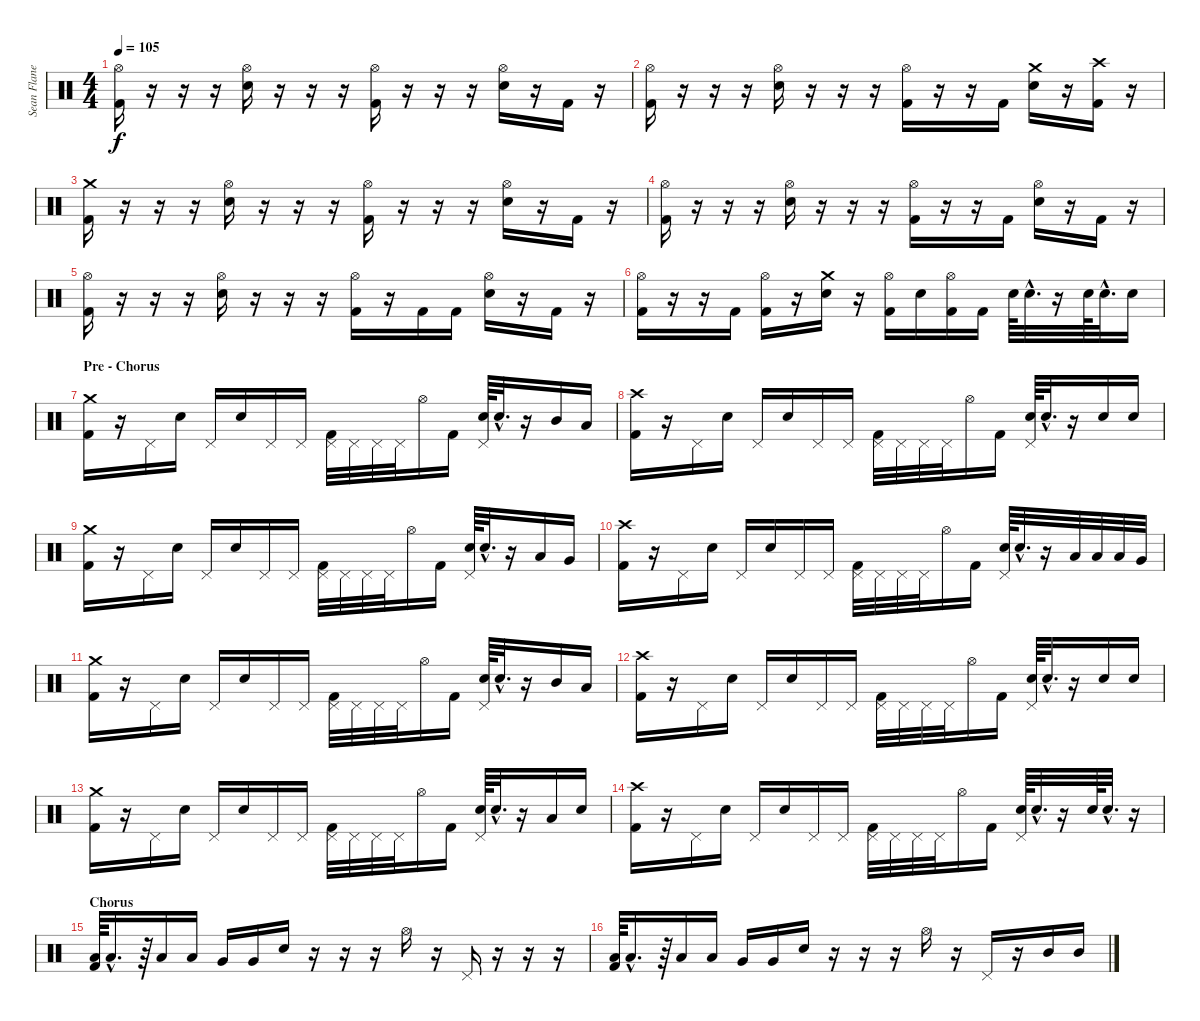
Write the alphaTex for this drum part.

\track ("Sean Flanegan [Drums]" "Sean Flane") {instrument percussion}
\staff {score}
\articulation defaults
\ts (4 4)
\tempo 105
\clef neutral
\ks c
("Hi-Hat (open)" "Kick (hit) 2").16{dy f} r.16 r.16 r.16 ("Hi-Hat (open)" "Electric Snare (hit)").16 r.16 r.16 r.16 ("Hi-Hat (open)" "Kick (hit) 2").16 r.16 r.16 r.16 ("Hi-Hat (open)" "Electric Snare (hit)").16 r.16 "Kick (hit) 2".16 r.16 |
("Hi-Hat (open)" "Kick (hit) 2").16 r.16 r.16 r.16 ("Hi-Hat (open)" "Electric Snare (hit)").16 r.16 r.16 r.16 ("Hi-Hat (open)" "Kick (hit) 2").16 r.16 r.16 "Kick (hit) 2".16 ("Crash medium (hit)" "Electric Snare (hit)").16 r.16 ("Crash high (hit)" "Kick (hit) 2").16 r.16 |
("Crash medium (hit)" "Kick (hit) 2").16 r.16 r.16 r.16 ("Hi-Hat (open)" "Electric Snare (hit)").16 r.16 r.16 r.16 ("Hi-Hat (open)" "Kick (hit) 2").16 r.16 r.16 r.16 ("Hi-Hat (open)" "Electric Snare (hit)").16 r.16 "Kick (hit) 2".16 r.16 |
("Hi-Hat (open)" "Kick (hit) 2").16 r.16 r.16 r.16 ("Hi-Hat (open)" "Electric Snare (hit)").16 r.16 r.16 r.16 ("Hi-Hat (open)" "Kick (hit) 2").16 r.16 r.16 "Kick (hit) 2".16 ("Hi-Hat (open)" "Electric Snare (hit)").16 r.16 "Kick (hit) 2".16 r.16 |
("Hi-Hat (open)" "Kick (hit) 2").16 r.16 r.16 r.16 ("Hi-Hat (open)" "Electric Snare (hit)").16 r.16 r.16 r.16 ("Hi-Hat (open)" "Kick (hit) 2").16 r.16 "Kick (hit) 2".16 "Kick (hit) 2".16 ("Hi-Hat (open)" "Electric Snare (hit)").16 r.16 "Kick (hit) 2".16 r.16 |
("Hi-Hat (open)" "Kick (hit) 2").16 r.16 r.16 "Kick (hit) 2".16 ("Hi-Hat (open)" "Kick (hit) 2").16 r.16 ("Crash medium (hit)" "Electric Snare (hit)").16 r.16 ("Hi-Hat (open)" "Kick (hit) 2").16 "Electric Snare (hit)".16 ("Hi-Hat (open)" "Kick (hit) 2").16 "Kick (hit) 2".16 "Electric Snare (hit)".64 "Electric Snare (hit)"{hac}.32{d} r.16 "Electric Snare (hit)".64 "Electric Snare (hit)"{hac}.32{d} "Electric Snare (hit)".16 |
\section ("" "Pre - Chorus")
("Crash medium (hit)" "Kick (hit) 2").16 r.16 "Pedal Hi-Hat (hit)".16 "Electric Snare (hit)".16 "Pedal Hi-Hat (hit)".16 "Electric Snare (hit)".16 "Pedal Hi-Hat (hit)".16 "Pedal Hi-Hat (hit)".16 ("Pedal Hi-Hat (hit)" "Kick (hit) 2").32 "Pedal Hi-Hat (hit)".32 "Pedal Hi-Hat (hit)".32 "Pedal Hi-Hat (hit)".32 "Hi-Hat (open)".16 "Kick (hit) 2".16 ("Pedal Hi-Hat (hit)" "Electric Snare (hit)").64 "Electric Snare (hit)"{hac}.32{d} r.16 "Mid Tom (hit)".16 "Low Tom (hit)".16 |
("Crash high (hit)" "Kick (hit) 2").16 r.16 "Pedal Hi-Hat (hit)".16 "Electric Snare (hit)".16 "Pedal Hi-Hat (hit)".16 "Electric Snare (hit)".16 "Pedal Hi-Hat (hit)".16 "Pedal Hi-Hat (hit)".16 ("Pedal Hi-Hat (hit)" "Kick (hit) 2").32 "Pedal Hi-Hat (hit)".32 "Pedal Hi-Hat (hit)".32 "Pedal Hi-Hat (hit)".32 "Hi-Hat (open)".16 "Kick (hit) 2".16 ("Pedal Hi-Hat (hit)" "Electric Snare (hit)").64 "Electric Snare (hit)"{hac}.32{d} r.16 "Electric Snare (hit)".16 "Electric Snare (hit)".16 |
("Crash medium (hit)" "Kick (hit) 2").16 r.16 "Pedal Hi-Hat (hit)".16 "Electric Snare (hit)".16 "Pedal Hi-Hat (hit)".16 "Electric Snare (hit)".16 "Pedal Hi-Hat (hit)".16 "Pedal Hi-Hat (hit)".16 ("Pedal Hi-Hat (hit)" "Kick (hit) 2").32 "Pedal Hi-Hat (hit)".32 "Pedal Hi-Hat (hit)".32 "Pedal Hi-Hat (hit)".32 "Hi-Hat (open)".16 "Kick (hit) 2".16 ("Pedal Hi-Hat (hit)" "Electric Snare (hit)").64 "Electric Snare (hit)"{hac}.32{d} r.16 "Low Tom (hit)".16 "Very Low Tom (hit)".16 |
("Crash high (hit)" "Kick (hit) 2").16 r.16 "Pedal Hi-Hat (hit)".16 "Electric Snare (hit)".16 "Pedal Hi-Hat (hit)".16 "Electric Snare (hit)".16 "Pedal Hi-Hat (hit)".16 "Pedal Hi-Hat (hit)".16 ("Pedal Hi-Hat (hit)" "Kick (hit) 2").32 "Pedal Hi-Hat (hit)".32 "Pedal Hi-Hat (hit)".32 "Pedal Hi-Hat (hit)".32 "Hi-Hat (open)".16 "Kick (hit) 2".16 ("Pedal Hi-Hat (hit)" "Electric Snare (hit)").64 "Electric Snare (hit)"{hac}.32{d} r.16 "Low Tom (hit)".32 "Low Tom (hit)".32 "Low Tom (hit)".32 "Very Low Tom (hit)".32 |
("Crash medium (hit)" "Kick (hit) 2").16 r.16 "Pedal Hi-Hat (hit)".16 "Electric Snare (hit)".16 "Pedal Hi-Hat (hit)".16 "Electric Snare (hit)".16 "Pedal Hi-Hat (hit)".16 "Pedal Hi-Hat (hit)".16 ("Pedal Hi-Hat (hit)" "Kick (hit) 2").32 "Pedal Hi-Hat (hit)".32 "Pedal Hi-Hat (hit)".32 "Pedal Hi-Hat (hit)".32 "Hi-Hat (open)".16 "Kick (hit) 2".16 ("Pedal Hi-Hat (hit)" "Electric Snare (hit)").64 "Electric Snare (hit)"{hac}.32{d} r.16 "Mid Tom (hit)".16 "Low Tom (hit)".16 |
("Crash high (hit)" "Kick (hit) 2").16 r.16 "Pedal Hi-Hat (hit)".16 "Electric Snare (hit)".16 "Pedal Hi-Hat (hit)".16 "Electric Snare (hit)".16 "Pedal Hi-Hat (hit)".16 "Pedal Hi-Hat (hit)".16 ("Pedal Hi-Hat (hit)" "Kick (hit) 2").32 "Pedal Hi-Hat (hit)".32 "Pedal Hi-Hat (hit)".32 "Pedal Hi-Hat (hit)".32 "Hi-Hat (open)".16 "Kick (hit) 2".16 ("Pedal Hi-Hat (hit)" "Electric Snare (hit)").64 "Electric Snare (hit)"{hac}.32{d} r.16 "Electric Snare (hit)".16 "Electric Snare (hit)".16 |
("Crash medium (hit)" "Kick (hit) 2").16 r.16 "Pedal Hi-Hat (hit)".16 "Electric Snare (hit)".16 "Pedal Hi-Hat (hit)".16 "Electric Snare (hit)".16 "Pedal Hi-Hat (hit)".16 "Pedal Hi-Hat (hit)".16 ("Pedal Hi-Hat (hit)" "Kick (hit) 2").32 "Pedal Hi-Hat (hit)".32 "Pedal Hi-Hat (hit)".32 "Pedal Hi-Hat (hit)".32 "Hi-Hat (open)".16 "Kick (hit) 2".16 ("Pedal Hi-Hat (hit)" "Electric Snare (hit)").64 "Electric Snare (hit)"{hac}.32{d} r.16 "Low Tom (hit)".16 "Electric Snare (hit)".16 |
("Crash high (hit)" "Kick (hit) 2").16 r.16 "Pedal Hi-Hat (hit)".16 "Electric Snare (hit)".16 "Pedal Hi-Hat (hit)".16 "Electric Snare (hit)".16 "Pedal Hi-Hat (hit)".16 "Pedal Hi-Hat (hit)".16 ("Pedal Hi-Hat (hit)" "Kick (hit) 2").32 "Pedal Hi-Hat (hit)".32 "Pedal Hi-Hat (hit)".32 "Pedal Hi-Hat (hit)".32 "Hi-Hat (open)".16 "Kick (hit) 2".16 ("Pedal Hi-Hat (hit)" "Electric Snare (hit)").64 "Electric Snare (hit)"{hac}.32{d} r.16 "Electric Snare (hit)".64 "Electric Snare (hit)"{hac}.32{d} r.16 |
\section ("" "Chorus")
("Low Tom (hit)" "Kick (hit) 2").64 "Low Tom (hit)"{hac}.16{d} r.64 "Low Tom (hit)".16 "Low Tom (hit)".16 "Very Low Tom (hit)".16 "Very Low Tom (hit)".16 "Electric Snare (hit)".16 r.16 r.16 r.16 "Hi-Hat (open)".16 r.16 "Pedal Hi-Hat (hit)".16 r.16 r.16 r.16 |
("Low Tom (hit)" "Kick (hit) 2").64 "Low Tom (hit)"{hac}.16{d} r.64 "Low Tom (hit)".16 "Low Tom (hit)".16 "Very Low Tom (hit)".16 "Very Low Tom (hit)".16 "Electric Snare (hit)".16 r.16 r.16 r.16 "Hi-Hat (open)".16 r.16 "Pedal Hi-Hat (hit)".16 r.16 "Mid Tom (hit)".16 "Mid Tom (hit)".16
